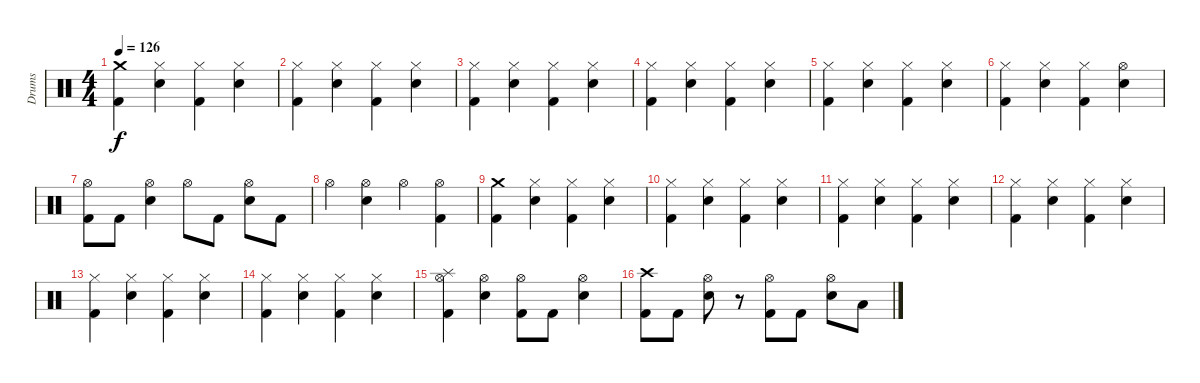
\track ("Drums" "Drums") {instrument percussion}
\staff {score}
\articulation defaults
\ts (4 4)
\tempo 126
\clef neutral
\ks c
("Kick (hit) 2" "Crash medium (hit)").4{dy f} ("Hi-Hat (closed)" "Electric Snare (hit)").4 ("Hi-Hat (closed)" "Kick (hit) 2").4 ("Hi-Hat (closed)" "Electric Snare (hit)").4 |
("Hi-Hat (closed)" "Kick (hit) 2").4 ("Hi-Hat (closed)" "Electric Snare (hit)").4 ("Hi-Hat (closed)" "Kick (hit) 2").4 ("Hi-Hat (closed)" "Electric Snare (hit)").4 |
("Hi-Hat (closed)" "Kick (hit) 2").4 ("Hi-Hat (closed)" "Electric Snare (hit)").4 ("Hi-Hat (closed)" "Kick (hit) 2").4 ("Hi-Hat (closed)" "Electric Snare (hit)").4 |
("Hi-Hat (closed)" "Kick (hit) 2").4 ("Hi-Hat (closed)" "Electric Snare (hit)").4 ("Hi-Hat (closed)" "Kick (hit) 2").4 ("Hi-Hat (closed)" "Electric Snare (hit)").4 |
("Hi-Hat (closed)" "Kick (hit) 2").4 ("Hi-Hat (closed)" "Electric Snare (hit)").4 ("Hi-Hat (closed)" "Kick (hit) 2").4 ("Hi-Hat (closed)" "Electric Snare (hit)").4 |
("Hi-Hat (closed)" "Kick (hit) 2").4 ("Hi-Hat (closed)" "Electric Snare (hit)").4 ("Hi-Hat (closed)" "Kick (hit) 2").4 ("Hi-Hat (open)" "Electric Snare (hit)").4 |
("Hi-Hat (open)" "Kick (hit) 2").8 "Kick (hit) 2".8 ("Electric Snare (hit)" "Hi-Hat (open)").4 "Hi-Hat (open)".8 "Kick (hit) 2".8 ("Electric Snare (hit)" "Hi-Hat (open)").8 "Kick (hit) 2".8 |
"Hi-Hat (open)".4 ("Electric Snare (hit)" "Hi-Hat (open)").4 "Hi-Hat (open)".4 ("Hi-Hat (open)" "Kick (hit) 2").4 |
("Kick (hit) 2" "Crash medium (hit)").4 ("Hi-Hat (closed)" "Electric Snare (hit)").4 ("Hi-Hat (closed)" "Kick (hit) 2").4 ("Hi-Hat (closed)" "Electric Snare (hit)").4 |
("Hi-Hat (closed)" "Kick (hit) 2").4 ("Hi-Hat (closed)" "Electric Snare (hit)").4 ("Hi-Hat (closed)" "Kick (hit) 2").4 ("Hi-Hat (closed)" "Electric Snare (hit)").4 |
("Hi-Hat (closed)" "Kick (hit) 2").4 ("Hi-Hat (closed)" "Electric Snare (hit)").4 ("Hi-Hat (closed)" "Kick (hit) 2").4 ("Hi-Hat (closed)" "Electric Snare (hit)").4 |
("Hi-Hat (closed)" "Kick (hit) 2").4 ("Hi-Hat (closed)" "Electric Snare (hit)").4 ("Hi-Hat (closed)" "Kick (hit) 2").4 ("Hi-Hat (closed)" "Electric Snare (hit)").4 |
("Hi-Hat (closed)" "Kick (hit) 2").4 ("Hi-Hat (closed)" "Electric Snare (hit)").4 ("Hi-Hat (closed)" "Kick (hit) 2").4 ("Hi-Hat (closed)" "Electric Snare (hit)").4 |
("Hi-Hat (closed)" "Kick (hit) 2").4 ("Hi-Hat (closed)" "Electric Snare (hit)").4 ("Hi-Hat (closed)" "Kick (hit) 2").4 ("Hi-Hat (closed)" "Electric Snare (hit)").4 |
("Splash (hit)" "Hi-Hat (open)" "Kick (hit) 2").4 ("Hi-Hat (open)" "Electric Snare (hit)").4 ("Hi-Hat (open)" "Kick (hit) 2").8 "Kick (hit) 2".8 ("Hi-Hat (open)" "Electric Snare (hit)").4 |
("Crash high (hit)" "Kick (hit) 2").8 "Kick (hit) 2".8 ("Hi-Hat (open)" "Electric Snare (hit)").8 r.8 ("Hi-Hat (open)" "Kick (hit) 2").8 "Kick (hit) 2".8 ("Hi-Hat (open)" "Electric Snare (hit)").8 "Low Tom (hit)".8
